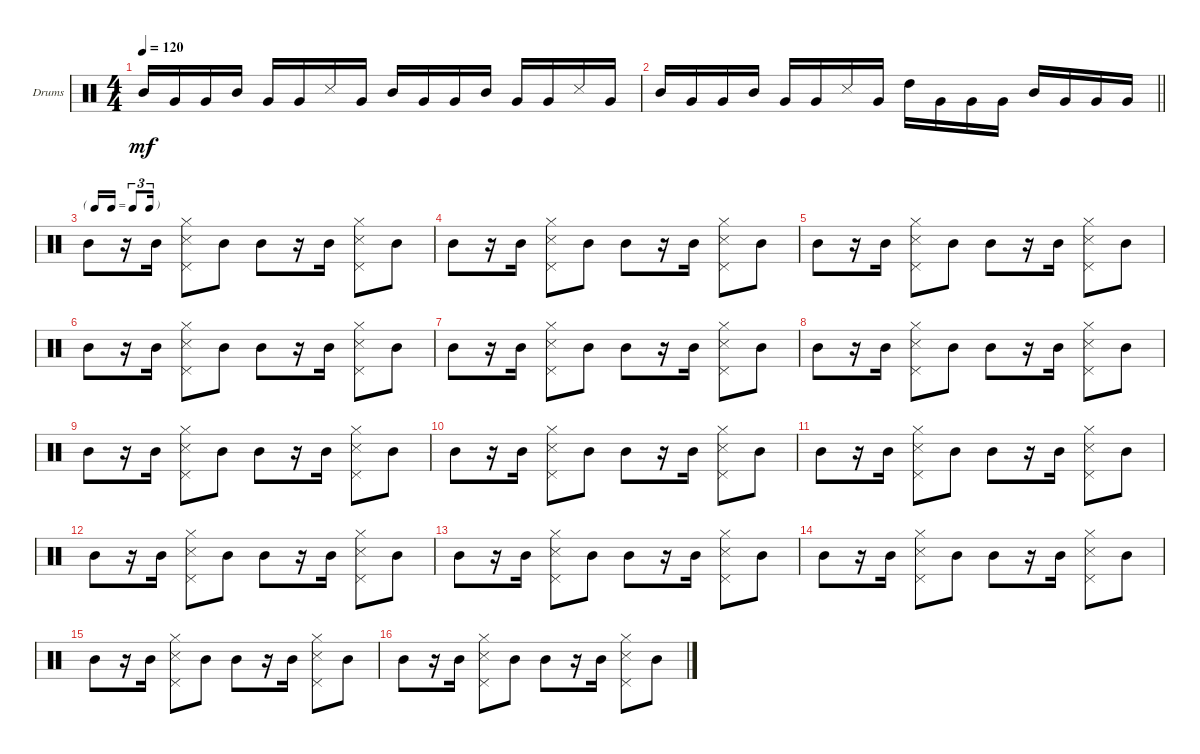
\defaultSystemsLayout 4
\bracketExtendMode groupsimilarinstruments
\firstSystemTrackNameOrientation horizontal
\otherSystemsTrackNameOrientation horizontal
\track ("Drumkit" "Drums") {instrument percussion}
\staff {score}
\articulation defaults
\ts (4 4)
\tempo 120
\clef neutral
\ks c "Mid Tom (hit)".16{dy mf} "Very Low Tom (hit)".16 "Very Low Tom (hit)".16 "Mid Tom (hit)".16 "Very Low Tom (hit)".16 "Very Low Tom (hit)".16 "Snare (side stick) 3".16 "Very Low Tom (hit)".16 "Mid Tom (hit)".16 "Very Low Tom (hit)".16 "Very Low Tom (hit)".16 "Mid Tom (hit)".16 "Very Low Tom (hit)".16 "Very Low Tom (hit)".16 "Snare (side stick) 3".16 "Very Low Tom (hit)".16
|
\barLineRight lightlight "Mid Tom (hit)".16 "Very Low Tom (hit)".16 "Very Low Tom (hit)".16 "Mid Tom (hit)".16 "Very Low Tom (hit)".16 "Very Low Tom (hit)".16 "Snare (side stick) 3".16 "Very Low Tom (hit)".16 "High Tom (hit)".16 "Very Low Tom (hit)".16 "Very Low Tom (hit)".16 "Very Low Tom (hit)".16 "Mid Tom (hit)".16 "Very Low Tom (hit)".16 "Very Low Tom (hit)".16 "Very Low Tom (hit)".16
|
\tf triplet16th "Mid Tom (hit)".8
r.16 "Mid Tom (hit)".16 ("Pedal Hi-Hat (hit)" "Snare (side stick) 3" "Hi-Hat (closed)").8 "Mid Tom (hit)".8 "Mid Tom (hit)".8 r.16 "Mid Tom (hit)".16 ("Pedal Hi-Hat (hit)" "Snare (side stick) 3" "Hi-Hat (closed)").8 "Mid Tom (hit)".8 |
"Mid Tom (hit)".8 r.16 "Mid Tom (hit)".16 ("Pedal Hi-Hat (hit)" "Snare (side stick) 3" "Hi-Hat (closed)").8 "Mid Tom (hit)".8 "Mid Tom (hit)".8 r.16 "Mid Tom (hit)".16 ("Pedal Hi-Hat (hit)" "Snare (side stick) 3" "Hi-Hat (closed)").8 "Mid Tom (hit)".8 |
"Mid Tom (hit)".8 r.16 "Mid Tom (hit)".16 ("Pedal Hi-Hat (hit)" "Snare (side stick) 3" "Hi-Hat (closed)").8 "Mid Tom (hit)".8 "Mid Tom (hit)".8 r.16 "Mid Tom (hit)".16 ("Pedal Hi-Hat (hit)" "Snare (side stick) 3" "Hi-Hat (closed)").8 "Mid Tom (hit)".8 |
"Mid Tom (hit)".8 r.16 "Mid Tom (hit)".16 ("Pedal Hi-Hat (hit)" "Snare (side stick) 3" "Hi-Hat (closed)").8 "Mid Tom (hit)".8 "Mid Tom (hit)".8 r.16 "Mid Tom (hit)".16 ("Pedal Hi-Hat (hit)" "Snare (side stick) 3" "Hi-Hat (closed)").8 "Mid Tom (hit)".8 |
"Mid Tom (hit)".8 r.16 "Mid Tom (hit)".16 ("Pedal Hi-Hat (hit)" "Snare (side stick) 3" "Hi-Hat (closed)").8 "Mid Tom (hit)".8 "Mid Tom (hit)".8 r.16 "Mid Tom (hit)".16 ("Pedal Hi-Hat (hit)" "Snare (side stick) 3" "Hi-Hat (closed)").8 "Mid Tom (hit)".8 |
"Mid Tom (hit)".8 r.16 "Mid Tom (hit)".16 ("Pedal Hi-Hat (hit)" "Snare (side stick) 3" "Hi-Hat (closed)").8 "Mid Tom (hit)".8 "Mid Tom (hit)".8 r.16 "Mid Tom (hit)".16 ("Pedal Hi-Hat (hit)" "Snare (side stick) 3" "Hi-Hat (closed)").8 "Mid Tom (hit)".8 |
"Mid Tom (hit)".8 r.16 "Mid Tom (hit)".16 ("Pedal Hi-Hat (hit)" "Snare (side stick) 3" "Hi-Hat (closed)").8 "Mid Tom (hit)".8 "Mid Tom (hit)".8 r.16 "Mid Tom (hit)".16 ("Pedal Hi-Hat (hit)" "Snare (side stick) 3" "Hi-Hat (closed)").8 "Mid Tom (hit)".8 |
"Mid Tom (hit)".8 r.16 "Mid Tom (hit)".16 ("Pedal Hi-Hat (hit)" "Snare (side stick) 3" "Hi-Hat (closed)").8 "Mid Tom (hit)".8 "Mid Tom (hit)".8 r.16 "Mid Tom (hit)".16 ("Pedal Hi-Hat (hit)" "Snare (side stick) 3" "Hi-Hat (closed)").8 "Mid Tom (hit)".8 |
"Mid Tom (hit)".8 r.16 "Mid Tom (hit)".16 ("Pedal Hi-Hat (hit)" "Snare (side stick) 3" "Hi-Hat (closed)").8 "Mid Tom (hit)".8 "Mid Tom (hit)".8 r.16 "Mid Tom (hit)".16 ("Pedal Hi-Hat (hit)" "Snare (side stick) 3" "Hi-Hat (closed)").8 "Mid Tom (hit)".8 |
"Mid Tom (hit)".8 r.16 "Mid Tom (hit)".16 ("Pedal Hi-Hat (hit)" "Snare (side stick) 3" "Hi-Hat (closed)").8 "Mid Tom (hit)".8 "Mid Tom (hit)".8 r.16 "Mid Tom (hit)".16 ("Pedal Hi-Hat (hit)" "Snare (side stick) 3" "Hi-Hat (closed)").8 "Mid Tom (hit)".8 |
"Mid Tom (hit)".8 r.16 "Mid Tom (hit)".16 ("Pedal Hi-Hat (hit)" "Snare (side stick) 3" "Hi-Hat (closed)").8 "Mid Tom (hit)".8 "Mid Tom (hit)".8 r.16 "Mid Tom (hit)".16 ("Pedal Hi-Hat (hit)" "Snare (side stick) 3" "Hi-Hat (closed)").8 "Mid Tom (hit)".8 |
"Mid Tom (hit)".8 r.16 "Mid Tom (hit)".16 ("Pedal Hi-Hat (hit)" "Snare (side stick) 3" "Hi-Hat (closed)").8 "Mid Tom (hit)".8 "Mid Tom (hit)".8 r.16 "Mid Tom (hit)".16 ("Pedal Hi-Hat (hit)" "Snare (side stick) 3" "Hi-Hat (closed)").8 "Mid Tom (hit)".8 |
"Mid Tom (hit)".8 r.16 "Mid Tom (hit)".16 ("Pedal Hi-Hat (hit)" "Snare (side stick) 3" "Hi-Hat (closed)").8 "Mid Tom (hit)".8 "Mid Tom (hit)".8 r.16 "Mid Tom (hit)".16 ("Pedal Hi-Hat (hit)" "Snare (side stick) 3" "Hi-Hat (closed)").8 "Mid Tom (hit)".8 |
"Mid Tom (hit)".8 r.16 "Mid Tom (hit)".16 ("Pedal Hi-Hat (hit)" "Snare (side stick) 3" "Hi-Hat (closed)").8 "Mid Tom (hit)".8 "Mid Tom (hit)".8 r.16 "Mid Tom (hit)".16 ("Pedal Hi-Hat (hit)" "Snare (side stick) 3" "Hi-Hat (closed)").8 "Mid Tom (hit)".8
